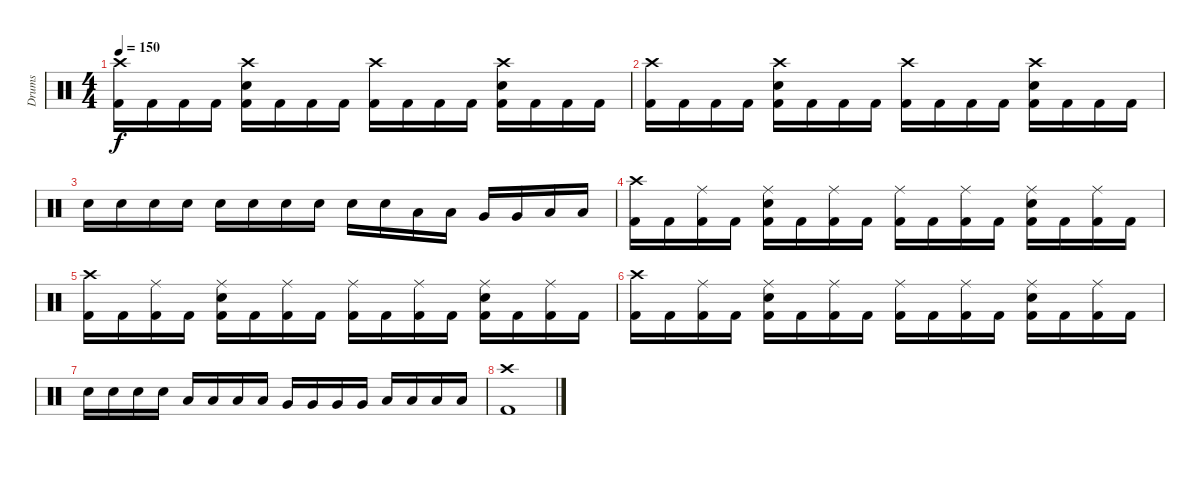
\track ("Drums" "Drums") {instrument percussion}
\staff {score}
\articulation defaults
\ts (4 4)
\tempo 150
\clef neutral
\ks c
("Crash high (hit)" "Kick (hit) 2").16{dy f} "Kick (hit) 2".16 "Kick (hit) 2".16 "Kick (hit) 2".16 ("Crash high (hit)" "Snare (hit) 2" "Kick (hit) 2").16 "Kick (hit) 2".16 "Kick (hit) 2".16 "Kick (hit) 2".16 ("Crash high (hit)" "Kick (hit) 2").16 "Kick (hit) 2".16 "Kick (hit) 2".16 "Kick (hit) 2".16 ("Crash high (hit)" "Snare (hit) 2" "Kick (hit) 2").16 "Kick (hit) 2".16 "Kick (hit) 2".16 "Kick (hit) 2".16 |
("Crash high (hit)" "Kick (hit) 2").16 "Kick (hit) 2".16 "Kick (hit) 2".16 "Kick (hit) 2".16 ("Crash high (hit)" "Snare (hit) 2" "Kick (hit) 2").16 "Kick (hit) 2".16 "Kick (hit) 2".16 "Kick (hit) 2".16 ("Crash high (hit)" "Kick (hit) 2").16 "Kick (hit) 2".16 "Kick (hit) 2".16 "Kick (hit) 2".16 ("Crash high (hit)" "Snare (hit) 2" "Kick (hit) 2").16 "Kick (hit) 2".16 "Kick (hit) 2".16 "Kick (hit) 2".16 |
"Snare (hit) 2".16 "Snare (hit) 2".16 "Snare (hit) 2".16 "Snare (hit) 2".16 "Snare (hit) 2".16 "Snare (hit) 2".16 "Snare (hit) 2".16 "Snare (hit) 2".16 "Snare (hit) 2".16 "Snare (hit) 2".16 "Low Tom (hit)".16 "Low Tom (hit)".16 "Very Low Tom (hit)".16 "Very Low Tom (hit)".16 "Low Floor Tom (hit)".16 "Low Floor Tom (hit)".16 |
("Crash high (hit)" "Kick (hit) 2").16 "Kick (hit) 2".16 ("Ride (middle)" "Kick (hit) 2").16 "Kick (hit) 2".16 ("Ride (middle)" "Snare (hit) 2" "Kick (hit) 2").16 "Kick (hit) 2".16 ("Ride (middle)" "Kick (hit) 2").16 "Kick (hit) 2".16 ("Ride (middle)" "Kick (hit) 2").16 "Kick (hit) 2".16 ("Ride (middle)" "Kick (hit) 2").16 "Kick (hit) 2".16 ("Ride (middle)" "Snare (hit) 2" "Kick (hit) 2").16 "Kick (hit) 2".16 ("Ride (middle)" "Kick (hit) 2").16 "Kick (hit) 2".16 |
("Crash high (hit)" "Kick (hit) 2").16 "Kick (hit) 2".16 ("Ride (middle)" "Kick (hit) 2").16 "Kick (hit) 2".16 ("Ride (middle)" "Snare (hit) 2" "Kick (hit) 2").16 "Kick (hit) 2".16 ("Ride (middle)" "Kick (hit) 2").16 "Kick (hit) 2".16 ("Ride (middle)" "Kick (hit) 2").16 "Kick (hit) 2".16 ("Ride (middle)" "Kick (hit) 2").16 "Kick (hit) 2".16 ("Ride (middle)" "Snare (hit) 2" "Kick (hit) 2").16 "Kick (hit) 2".16 ("Ride (middle)" "Kick (hit) 2").16 "Kick (hit) 2".16 |
("Crash high (hit)" "Kick (hit) 2").16 "Kick (hit) 2".16 ("Ride (middle)" "Kick (hit) 2").16 "Kick (hit) 2".16 ("Ride (middle)" "Snare (hit) 2" "Kick (hit) 2").16 "Kick (hit) 2".16 ("Ride (middle)" "Kick (hit) 2").16 "Kick (hit) 2".16 ("Ride (middle)" "Kick (hit) 2").16 "Kick (hit) 2".16 ("Ride (middle)" "Kick (hit) 2").16 "Kick (hit) 2".16 ("Ride (middle)" "Snare (hit) 2" "Kick (hit) 2").16 "Kick (hit) 2".16 ("Ride (middle)" "Kick (hit) 2").16 "Kick (hit) 2".16 |
"Snare (hit) 2".16 "Snare (hit) 2".16 "Snare (hit) 2".16 "Snare (hit) 2".16 "Low Tom (hit)".16 "Low Tom (hit)".16 "Low Tom (hit)".16 "Low Tom (hit)".16 "Very Low Tom (hit)".16 "Very Low Tom (hit)".16 "Very Low Tom (hit)".16 "Very Low Tom (hit)".16 "Low Floor Tom (hit)".16 "Low Floor Tom (hit)".16 "Low Floor Tom (hit)".16 "Low Floor Tom (hit)".16 |
("Crash high (hit)" "Kick (hit) 2").1
